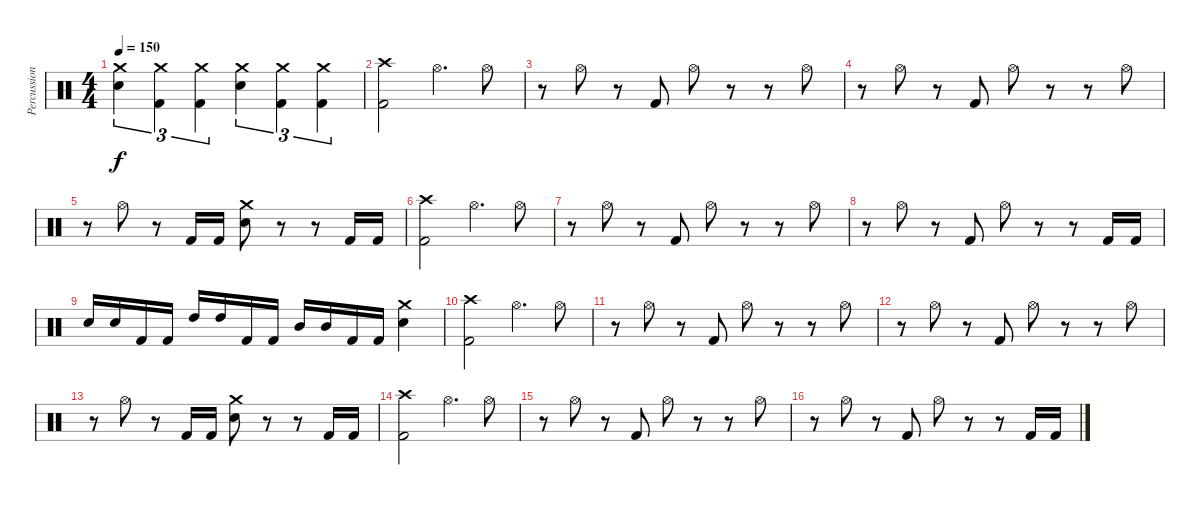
\track ("Percussion" "Percussion") {instrument percussion}
\staff {score}
\articulation defaults
\ts (4 4)
\tempo 150
\clef neutral
\ks c
("Crash medium (hit)" "Snare (hit) 2").4{tu (3 2) dy f} ("Crash medium (hit)" "Kick (hit) 2").4{tu (3 2)} ("Crash medium (hit)" "Kick (hit) 2").4{tu (3 2)} ("Crash medium (hit)" "Snare (hit) 2").4{tu (3 2)} ("Crash medium (hit)" "Kick (hit) 2").4{tu (3 2)} ("Crash medium (hit)" "Kick (hit) 2").4{tu (3 2)} |
("Crash high (hit)" "Kick (hit) 2").2 "Hi-Hat (open)".4{d} "Hi-Hat (open)".8 |
r.8 "Hi-Hat (open)".8 r.8 "Kick (hit) 2".8 "Hi-Hat (open)".8 r.8 r.8 "Hi-Hat (open)".8 |
r.8 "Hi-Hat (open)".8 r.8 "Kick (hit) 2".8 "Hi-Hat (open)".8 r.8 r.8 "Hi-Hat (open)".8 |
r.8 "Hi-Hat (open)".8 r.8 "Kick (hit) 2".16 "Kick (hit) 2".16 ("Crash medium (hit)" "Snare (hit) 2").8 r.8 r.8 "Kick (hit) 2".16 "Kick (hit) 2".16 |
("Crash high (hit)" "Kick (hit) 2").2 "Hi-Hat (open)".4{d} "Hi-Hat (open)".8 |
r.8 "Hi-Hat (open)".8 r.8 "Kick (hit) 2".8 "Hi-Hat (open)".8 r.8 r.8 "Hi-Hat (open)".8 |
r.8 "Hi-Hat (open)".8 r.8 "Kick (hit) 2".8 "Hi-Hat (open)".8 r.8 r.8 "Kick (hit) 2".16 "Kick (hit) 2".16 |
"Snare (hit) 2".16 "Snare (hit) 2".16 "Kick (hit) 2".16 "Kick (hit) 2".16 "High Tom (hit)".16 "High Tom (hit)".16 "Kick (hit) 2".16 "Kick (hit) 2".16 "Mid Tom (hit)".16 "Mid Tom (hit)".16 "Kick (hit) 2".16 "Kick (hit) 2".16 ("Crash medium (hit)" "Snare (hit) 2").4 |
("Crash high (hit)" "Kick (hit) 2").2 "Hi-Hat (open)".4{d} "Hi-Hat (open)".8 |
r.8 "Hi-Hat (open)".8 r.8 "Kick (hit) 2".8 "Hi-Hat (open)".8 r.8 r.8 "Hi-Hat (open)".8 |
r.8 "Hi-Hat (open)".8 r.8 "Kick (hit) 2".8 "Hi-Hat (open)".8 r.8 r.8 "Hi-Hat (open)".8 |
r.8 "Hi-Hat (open)".8 r.8 "Kick (hit) 2".16 "Kick (hit) 2".16 ("Crash medium (hit)" "Snare (hit) 2").8 r.8 r.8 "Kick (hit) 2".16 "Kick (hit) 2".16 |
("Crash high (hit)" "Kick (hit) 2").2 "Hi-Hat (open)".4{d} "Hi-Hat (open)".8 |
r.8 "Hi-Hat (open)".8 r.8 "Kick (hit) 2".8 "Hi-Hat (open)".8 r.8 r.8 "Hi-Hat (open)".8 |
r.8 "Hi-Hat (open)".8 r.8 "Kick (hit) 2".8 "Hi-Hat (open)".8 r.8 r.8 "Kick (hit) 2".16 "Kick (hit) 2".16
